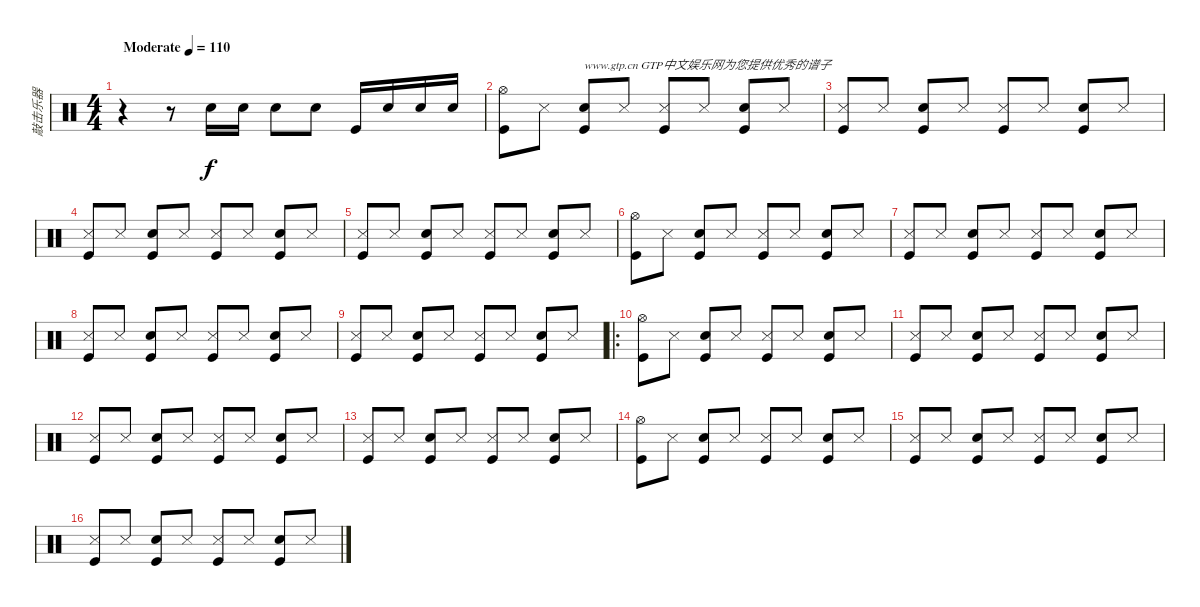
\track ("敲击乐器" "敲击乐器") {instrument percussion}
\staff {score}
\articulation defaults
\ts (4 4)
\tempo (110 "Moderate")
\clef neutral
\ks c
r.4{dy f} r.8 "Snare (hit) 2".16 "Snare (hit) 2".16 "Snare (hit) 2".8 "Snare (hit) 2".8 "Kick (hit)".16 "Snare (hit) 2".16 "Snare (hit) 2".16 "Snare (hit) 2".16 |
("Hi-Hat (open)" "Kick (hit)").8 "Snare (side stick) 3".8 ("Snare (hit) 2" "Kick (hit)").8{txt "www.gtp.cn GTP中文娱乐网为您提供优秀的谱子"} "Snare (side stick) 3".8 ("Snare (side stick) 3" "Kick (hit)").8 "Snare (side stick) 3".8 ("Snare (hit) 2" "Kick (hit)").8 "Snare (side stick) 3".8 |
("Snare (side stick) 3" "Kick (hit)").8 "Snare (side stick) 3".8 ("Snare (hit) 2" "Kick (hit)").8 "Snare (side stick) 3".8 ("Snare (side stick) 3" "Kick (hit)").8 "Snare (side stick) 3".8 ("Snare (hit) 2" "Kick (hit)").8 "Snare (side stick) 3".8 |
("Snare (side stick) 3" "Kick (hit)").8 "Snare (side stick) 3".8 ("Snare (hit) 2" "Kick (hit)").8 "Snare (side stick) 3".8 ("Snare (side stick) 3" "Kick (hit)").8 "Snare (side stick) 3".8 ("Snare (hit) 2" "Kick (hit)").8 "Snare (side stick) 3".8 |
("Snare (side stick) 3" "Kick (hit)").8 "Snare (side stick) 3".8 ("Snare (hit) 2" "Kick (hit)").8 "Snare (side stick) 3".8 ("Snare (side stick) 3" "Kick (hit)").8 "Snare (side stick) 3".8 ("Snare (hit) 2" "Kick (hit)").8 "Snare (side stick) 3".8 |
("Hi-Hat (open)" "Kick (hit)").8 "Snare (side stick) 3".8 ("Snare (hit) 2" "Kick (hit)").8 "Snare (side stick) 3".8 ("Snare (side stick) 3" "Kick (hit)").8 "Snare (side stick) 3".8 ("Snare (hit) 2" "Kick (hit)").8 "Snare (side stick) 3".8 |
("Snare (side stick) 3" "Kick (hit)").8 "Snare (side stick) 3".8 ("Snare (hit) 2" "Kick (hit)").8 "Snare (side stick) 3".8 ("Snare (side stick) 3" "Kick (hit)").8 "Snare (side stick) 3".8 ("Snare (hit) 2" "Kick (hit)").8 "Snare (side stick) 3".8 |
("Snare (side stick) 3" "Kick (hit)").8 "Snare (side stick) 3".8 ("Snare (hit) 2" "Kick (hit)").8 "Snare (side stick) 3".8 ("Snare (side stick) 3" "Kick (hit)").8 "Snare (side stick) 3".8 ("Snare (hit) 2" "Kick (hit)").8 "Snare (side stick) 3".8 |
("Snare (side stick) 3" "Kick (hit)").8 "Snare (side stick) 3".8 ("Snare (hit) 2" "Kick (hit)").8 "Snare (side stick) 3".8 ("Snare (side stick) 3" "Kick (hit)").8 "Snare (side stick) 3".8 ("Snare (hit) 2" "Kick (hit)").8 "Snare (side stick) 3".8 |
\ro
("Hi-Hat (open)" "Kick (hit)").8 "Snare (side stick) 3".8 ("Snare (hit) 2" "Kick (hit)").8 "Snare (side stick) 3".8 ("Snare (side stick) 3" "Kick (hit)").8 "Snare (side stick) 3".8 ("Snare (hit) 2" "Kick (hit)").8 "Snare (side stick) 3".8 |
("Snare (side stick) 3" "Kick (hit)").8 "Snare (side stick) 3".8 ("Snare (hit) 2" "Kick (hit)").8 "Snare (side stick) 3".8 ("Snare (side stick) 3" "Kick (hit)").8 "Snare (side stick) 3".8 ("Snare (hit) 2" "Kick (hit)").8 "Snare (side stick) 3".8 |
("Snare (side stick) 3" "Kick (hit)").8 "Snare (side stick) 3".8 ("Snare (hit) 2" "Kick (hit)").8 "Snare (side stick) 3".8 ("Snare (side stick) 3" "Kick (hit)").8 "Snare (side stick) 3".8 ("Snare (hit) 2" "Kick (hit)").8 "Snare (side stick) 3".8 |
("Snare (side stick) 3" "Kick (hit)").8 "Snare (side stick) 3".8 ("Snare (hit) 2" "Kick (hit)").8 "Snare (side stick) 3".8 ("Snare (side stick) 3" "Kick (hit)").8 "Snare (side stick) 3".8 ("Snare (hit) 2" "Kick (hit)").8 "Snare (side stick) 3".8 |
("Hi-Hat (open)" "Kick (hit)").8 "Snare (side stick) 3".8 ("Snare (hit) 2" "Kick (hit)").8 "Snare (side stick) 3".8 ("Snare (side stick) 3" "Kick (hit)").8 "Snare (side stick) 3".8 ("Snare (hit) 2" "Kick (hit)").8 "Snare (side stick) 3".8 |
("Snare (side stick) 3" "Kick (hit)").8 "Snare (side stick) 3".8 ("Snare (hit) 2" "Kick (hit)").8 "Snare (side stick) 3".8 ("Snare (side stick) 3" "Kick (hit)").8 "Snare (side stick) 3".8 ("Snare (hit) 2" "Kick (hit)").8 "Snare (side stick) 3".8 |
("Snare (side stick) 3" "Kick (hit)").8 "Snare (side stick) 3".8 ("Snare (hit) 2" "Kick (hit)").8 "Snare (side stick) 3".8 ("Snare (side stick) 3" "Kick (hit)").8 "Snare (side stick) 3".8 ("Snare (hit) 2" "Kick (hit)").8 "Snare (side stick) 3".8
